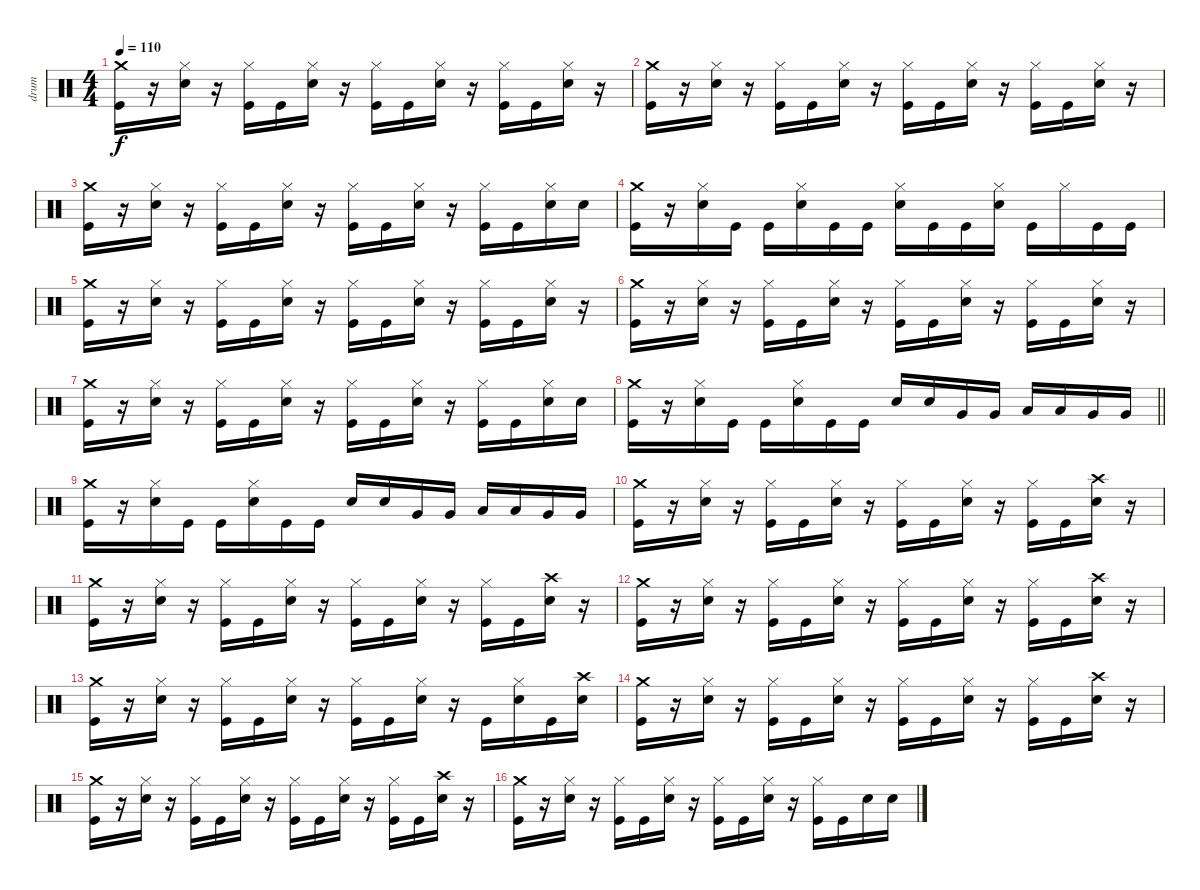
\track ("drum" "drum") {instrument percussion}
\staff {score}
\articulation defaults
\ts (4 4)
\tempo 110
\clef neutral
\ks c
("Crash medium (hit)" "Kick (hit)").16{dy f} r.16 ("Hi-Hat (closed)" "Electric Snare (hit)").16 r.16 ("Hi-Hat (closed)" "Kick (hit)").16 "Kick (hit)".16 ("Hi-Hat (closed)" "Electric Snare (hit)").16 r.16 ("Hi-Hat (closed)" "Kick (hit)").16 "Kick (hit)".16 ("Hi-Hat (closed)" "Electric Snare (hit)").16 r.16 ("Hi-Hat (closed)" "Kick (hit)").16 "Kick (hit)".16 ("Hi-Hat (closed)" "Electric Snare (hit)").16 r.16 |
("Crash medium (hit)" "Kick (hit)").16 r.16 ("Hi-Hat (closed)" "Electric Snare (hit)").16 r.16 ("Hi-Hat (closed)" "Kick (hit)").16 "Kick (hit)".16 ("Hi-Hat (closed)" "Electric Snare (hit)").16 r.16 ("Hi-Hat (closed)" "Kick (hit)").16 "Kick (hit)".16 ("Hi-Hat (closed)" "Electric Snare (hit)").16 r.16 ("Hi-Hat (closed)" "Kick (hit)").16 "Kick (hit)".16 ("Hi-Hat (closed)" "Electric Snare (hit)").16 r.16 |
("Crash medium (hit)" "Kick (hit)").16 r.16 ("Hi-Hat (closed)" "Electric Snare (hit)").16 r.16 ("Hi-Hat (closed)" "Kick (hit)").16 "Kick (hit)".16 ("Hi-Hat (closed)" "Electric Snare (hit)").16 r.16 ("Hi-Hat (closed)" "Kick (hit)").16 "Kick (hit)".16 ("Hi-Hat (closed)" "Electric Snare (hit)").16 r.16 ("Hi-Hat (closed)" "Kick (hit)").16 "Kick (hit)".16 ("Hi-Hat (closed)" "Electric Snare (hit)").16 "Electric Snare (hit)".16 |
("Crash medium (hit)" "Kick (hit)").16 r.16 ("Hi-Hat (closed)" "Electric Snare (hit)").16 "Kick (hit)".16 "Kick (hit)".16 ("Hi-Hat (closed)" "Electric Snare (hit)").16 "Kick (hit)".16 "Kick (hit)".16 ("Hi-Hat (closed)" "Electric Snare (hit)").16 "Kick (hit)".16 "Kick (hit)".16 ("Hi-Hat (closed)" "Electric Snare (hit)").16 "Kick (hit)".16 "Hi-Hat (closed)".16 "Kick (hit)".16 "Kick (hit)".16 |
("Crash medium (hit)" "Kick (hit)").16 r.16 ("Hi-Hat (closed)" "Electric Snare (hit)").16 r.16 ("Hi-Hat (closed)" "Kick (hit)").16 "Kick (hit)".16 ("Hi-Hat (closed)" "Electric Snare (hit)").16 r.16 ("Hi-Hat (closed)" "Kick (hit)").16 "Kick (hit)".16 ("Hi-Hat (closed)" "Electric Snare (hit)").16 r.16 ("Hi-Hat (closed)" "Kick (hit)").16 "Kick (hit)".16 ("Hi-Hat (closed)" "Electric Snare (hit)").16 r.16 |
("Crash medium (hit)" "Kick (hit)").16 r.16 ("Hi-Hat (closed)" "Electric Snare (hit)").16 r.16 ("Hi-Hat (closed)" "Kick (hit)").16 "Kick (hit)".16 ("Hi-Hat (closed)" "Electric Snare (hit)").16 r.16 ("Hi-Hat (closed)" "Kick (hit)").16 "Kick (hit)".16 ("Hi-Hat (closed)" "Electric Snare (hit)").16 r.16 ("Hi-Hat (closed)" "Kick (hit)").16 "Kick (hit)".16 ("Hi-Hat (closed)" "Electric Snare (hit)").16 r.16 |
("Crash medium (hit)" "Kick (hit)").16 r.16 ("Hi-Hat (closed)" "Electric Snare (hit)").16 r.16 ("Hi-Hat (closed)" "Kick (hit)").16 "Kick (hit)".16 ("Hi-Hat (closed)" "Electric Snare (hit)").16 r.16 ("Hi-Hat (closed)" "Kick (hit)").16 "Kick (hit)".16 ("Hi-Hat (closed)" "Electric Snare (hit)").16 r.16 ("Hi-Hat (closed)" "Kick (hit)").16 "Kick (hit)".16 ("Hi-Hat (closed)" "Electric Snare (hit)").16 "Electric Snare (hit)".16 |
\barLineRight lightlight
("Crash medium (hit)" "Kick (hit)").16 r.16 ("Hi-Hat (closed)" "Electric Snare (hit)").16 "Kick (hit)".16 "Kick (hit)".16 ("Hi-Hat (closed)" "Electric Snare (hit)").16 "Kick (hit)".16 "Kick (hit)".16 "Electric Snare (hit)".16 "Electric Snare (hit)".16 "Very Low Tom (hit)".16 "Very Low Tom (hit)".16 "Low Tom (hit)".16 "Low Tom (hit)".16 "Very Low Tom (hit)".16 "Very Low Tom (hit)".16 |
("Crash medium (hit)" "Kick (hit)").16 r.16 ("Hi-Hat (closed)" "Electric Snare (hit)").16 "Kick (hit)".16 "Kick (hit)".16 ("Hi-Hat (closed)" "Electric Snare (hit)").16 "Kick (hit)".16 "Kick (hit)".16 "Electric Snare (hit)".16 "Electric Snare (hit)".16 "Very Low Tom (hit)".16 "Very Low Tom (hit)".16 "Low Tom (hit)".16 "Low Tom (hit)".16 "Very Low Tom (hit)".16 "Very Low Tom (hit)".16 |
("Crash medium (hit)" "Kick (hit)").16 r.16 ("Hi-Hat (closed)" "Electric Snare (hit)").16 r.16 ("Hi-Hat (closed)" "Kick (hit)").16 "Kick (hit)".16 ("Hi-Hat (closed)" "Electric Snare (hit)").16 r.16 ("Hi-Hat (closed)" "Kick (hit)").16 "Kick (hit)".16 ("Hi-Hat (closed)" "Electric Snare (hit)").16 r.16 ("Hi-Hat (closed)" "Kick (hit)").16 "Kick (hit)".16 ("Crash high (hit)" "Electric Snare (hit)").16 r.16 |
("Crash medium (hit)" "Kick (hit)").16 r.16 ("Hi-Hat (closed)" "Electric Snare (hit)").16 r.16 ("Hi-Hat (closed)" "Kick (hit)").16 "Kick (hit)".16 ("Hi-Hat (closed)" "Electric Snare (hit)").16 r.16 ("Hi-Hat (closed)" "Kick (hit)").16 "Kick (hit)".16 ("Hi-Hat (closed)" "Electric Snare (hit)").16 r.16 ("Hi-Hat (closed)" "Kick (hit)").16 "Kick (hit)".16 ("Crash high (hit)" "Electric Snare (hit)").16 r.16 |
("Crash medium (hit)" "Kick (hit)").16 r.16 ("Hi-Hat (closed)" "Electric Snare (hit)").16 r.16 ("Hi-Hat (closed)" "Kick (hit)").16 "Kick (hit)".16 ("Hi-Hat (closed)" "Electric Snare (hit)").16 r.16 ("Hi-Hat (closed)" "Kick (hit)").16 "Kick (hit)".16 ("Hi-Hat (closed)" "Electric Snare (hit)").16 r.16 ("Hi-Hat (closed)" "Kick (hit)").16 "Kick (hit)".16 ("Crash high (hit)" "Electric Snare (hit)").16 r.16 |
("Crash medium (hit)" "Kick (hit)").16 r.16 ("Hi-Hat (closed)" "Electric Snare (hit)").16 r.16 ("Hi-Hat (closed)" "Kick (hit)").16 "Kick (hit)".16 ("Hi-Hat (closed)" "Electric Snare (hit)").16 r.16 ("Hi-Hat (closed)" "Kick (hit)").16 "Kick (hit)".16 ("Hi-Hat (closed)" "Electric Snare (hit)").16 r.16 "Kick (hit)".16 ("Hi-Hat (closed)" "Electric Snare (hit)").16 "Kick (hit)".16 ("Crash high (hit)" "Electric Snare (hit)").16 |
("Crash medium (hit)" "Kick (hit)").16 r.16 ("Hi-Hat (closed)" "Electric Snare (hit)").16 r.16 ("Hi-Hat (closed)" "Kick (hit)").16 "Kick (hit)".16 ("Hi-Hat (closed)" "Electric Snare (hit)").16 r.16 ("Hi-Hat (closed)" "Kick (hit)").16 "Kick (hit)".16 ("Hi-Hat (closed)" "Electric Snare (hit)").16 r.16 ("Hi-Hat (closed)" "Kick (hit)").16 "Kick (hit)".16 ("Crash high (hit)" "Electric Snare (hit)").16 r.16 |
("Crash medium (hit)" "Kick (hit)").16 r.16 ("Hi-Hat (closed)" "Electric Snare (hit)").16 r.16 ("Hi-Hat (closed)" "Kick (hit)").16 "Kick (hit)".16 ("Hi-Hat (closed)" "Electric Snare (hit)").16 r.16 ("Hi-Hat (closed)" "Kick (hit)").16 "Kick (hit)".16 ("Hi-Hat (closed)" "Electric Snare (hit)").16 r.16 ("Hi-Hat (closed)" "Kick (hit)").16 "Kick (hit)".16 ("Crash high (hit)" "Electric Snare (hit)").16 r.16 |
("Crash medium (hit)" "Kick (hit)").16 r.16 ("Hi-Hat (closed)" "Electric Snare (hit)").16 r.16 ("Hi-Hat (closed)" "Kick (hit)").16 "Kick (hit)".16 ("Hi-Hat (closed)" "Electric Snare (hit)").16 r.16 ("Hi-Hat (closed)" "Kick (hit)").16 "Kick (hit)".16 ("Hi-Hat (closed)" "Electric Snare (hit)").16 r.16 ("Hi-Hat (closed)" "Kick (hit)").16 "Kick (hit)".16 "Electric Snare (hit)".16 "Electric Snare (hit)".16
